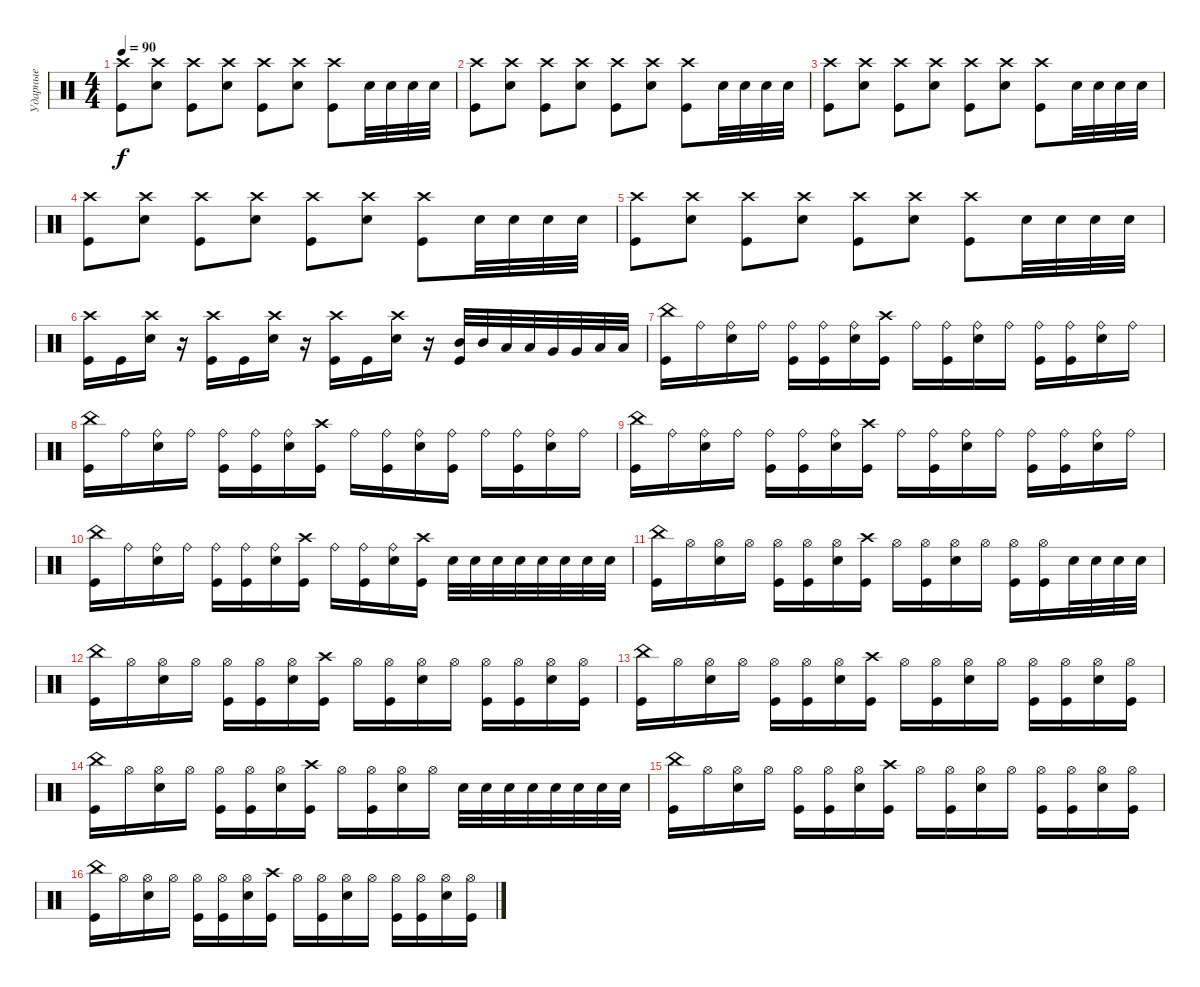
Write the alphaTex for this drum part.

\track ("Ударные" "Ударные") {instrument percussion}
\staff {score}
\articulation defaults
\ts (4 4)
\tempo 90
\clef neutral
\ks c
("Crash high (hit)" "Kick (hit)").8{dy f} ("Electric Snare (hit)" "Crash high (hit)").8 ("Kick (hit)" "Crash high (hit)").8 ("Electric Snare (hit)" "Crash high (hit)").8 ("Kick (hit)" "Crash high (hit)").8 ("Electric Snare (hit)" "Crash high (hit)").8 ("Kick (hit)" "Crash high (hit)").8 "Electric Snare (hit)".32 "Electric Snare (hit)".32 "Electric Snare (hit)".32 "Electric Snare (hit)".32 |
("Crash high (hit)" "Kick (hit)").8 ("Electric Snare (hit)" "Crash high (hit)").8 ("Kick (hit)" "Crash high (hit)").8 ("Electric Snare (hit)" "Crash high (hit)").8 ("Kick (hit)" "Crash high (hit)").8 ("Electric Snare (hit)" "Crash high (hit)").8 ("Kick (hit)" "Crash high (hit)").8 "Electric Snare (hit)".32 "Electric Snare (hit)".32 "Electric Snare (hit)".32 "Electric Snare (hit)".32 |
("Crash high (hit)" "Kick (hit)").8 ("Electric Snare (hit)" "Crash high (hit)").8 ("Kick (hit)" "Crash high (hit)").8 ("Electric Snare (hit)" "Crash high (hit)").8 ("Kick (hit)" "Crash high (hit)").8 ("Electric Snare (hit)" "Crash high (hit)").8 ("Kick (hit)" "Crash high (hit)").8 "Electric Snare (hit)".32 "Electric Snare (hit)".32 "Electric Snare (hit)".32 "Electric Snare (hit)".32 |
("Crash high (hit)" "Kick (hit)").8 ("Electric Snare (hit)" "Crash high (hit)").8 ("Kick (hit)" "Crash high (hit)").8 ("Electric Snare (hit)" "Crash high (hit)").8 ("Kick (hit)" "Crash high (hit)").8 ("Electric Snare (hit)" "Crash high (hit)").8 ("Kick (hit)" "Crash high (hit)").8 "Electric Snare (hit)".32 "Electric Snare (hit)".32 "Electric Snare (hit)".32 "Electric Snare (hit)".32 |
("Crash high (hit)" "Kick (hit)").8 ("Electric Snare (hit)" "Crash high (hit)").8 ("Kick (hit)" "Crash high (hit)").8 ("Electric Snare (hit)" "Crash high (hit)").8 ("Kick (hit)" "Crash high (hit)").8 ("Electric Snare (hit)" "Crash high (hit)").8 ("Kick (hit)" "Crash high (hit)").8 "Electric Snare (hit)".32 "Electric Snare (hit)".32 "Electric Snare (hit)".32 "Electric Snare (hit)".32 |
("Crash high (hit)" "Kick (hit)").16 "Kick (hit)".16 ("Crash high (hit)" "Electric Snare (hit)").16 r.16 ("Crash high (hit)" "Kick (hit)").16 "Kick (hit)".16 ("Crash high (hit)" "Electric Snare (hit)").16 r.16 ("Crash high (hit)" "Kick (hit)").16 "Kick (hit)".16 ("Crash high (hit)" "Electric Snare (hit)").16 r.16 ("Mid Tom (hit)" "Kick (hit)").32 "Mid Tom (hit)".32 "Low Tom (hit)".32 "Low Tom (hit)".32 "Very Low Tom (hit)".32 "Very Low Tom (hit)".32 "Low Floor Tom (hit)".32 "Low Floor Tom (hit)".32 |
("China (hit)" "Kick (hit)").16 "Ride (bell)".16 ("Ride (bell)" "Electric Snare (hit)").16 "Ride (bell)".16 ("Ride (bell)" "Kick (hit)").16 ("Ride (bell)" "Kick (hit)").16 ("Ride (bell)" "Electric Snare (hit)").16 ("Crash high (hit)" "Kick (hit)").16 "Ride (bell)".16 ("Ride (bell)" "Kick (hit)").16 ("Ride (bell)" "Electric Snare (hit)").16 "Ride (bell)".16 ("Ride (bell)" "Kick (hit)").16 ("Ride (bell)" "Kick (hit)").16 ("Ride (bell)" "Electric Snare (hit)").16 "Ride (bell)".16 |
("China (hit)" "Kick (hit)").16 "Ride (bell)".16 ("Ride (bell)" "Electric Snare (hit)").16 "Ride (bell)".16 ("Ride (bell)" "Kick (hit)").16 ("Ride (bell)" "Kick (hit)").16 ("Ride (bell)" "Electric Snare (hit)").16 ("Crash high (hit)" "Kick (hit)").16 "Ride (bell)".16 ("Ride (bell)" "Kick (hit)").16 ("Ride (bell)" "Electric Snare (hit)").16 ("Ride (bell)" "Kick (hit)").16 "Ride (bell)".16 ("Ride (bell)" "Kick (hit)").16 ("Ride (bell)" "Electric Snare (hit)").16 "Ride (bell)".16 |
("China (hit)" "Kick (hit)").16 "Ride (bell)".16 ("Ride (bell)" "Electric Snare (hit)").16 "Ride (bell)".16 ("Ride (bell)" "Kick (hit)").16 ("Ride (bell)" "Kick (hit)").16 ("Ride (bell)" "Electric Snare (hit)").16 ("Crash high (hit)" "Kick (hit)").16 "Ride (bell)".16 ("Ride (bell)" "Kick (hit)").16 ("Ride (bell)" "Electric Snare (hit)").16 "Ride (bell)".16 ("Ride (bell)" "Kick (hit)").16 ("Ride (bell)" "Kick (hit)").16 ("Ride (bell)" "Electric Snare (hit)").16 "Ride (bell)".16 |
("China (hit)" "Kick (hit)").16 "Ride (bell)".16 ("Ride (bell)" "Electric Snare (hit)").16 "Ride (bell)".16 ("Ride (bell)" "Kick (hit)").16 ("Ride (bell)" "Kick (hit)").16 ("Ride (bell)" "Electric Snare (hit)").16 ("Crash high (hit)" "Kick (hit)").16 "Ride (bell)".16 ("Ride (bell)" "Kick (hit)").16 ("Ride (bell)" "Electric Snare (hit)").16 ("Crash high (hit)" "Kick (hit)").16 "Electric Snare (hit)".32 "Electric Snare (hit)".32 "Electric Snare (hit)".32 "Electric Snare (hit)".32 "Electric Snare (hit)".32 "Electric Snare (hit)".32 "Electric Snare (hit)".32 "Electric Snare (hit)".32 |
("China (hit)" "Kick (hit)").16 "Hi-Hat (open)".16 ("Hi-Hat (open)" "Electric Snare (hit)").16 "Hi-Hat (open)".16 ("Hi-Hat (open)" "Kick (hit)").16 ("Hi-Hat (open)" "Kick (hit)").16 ("Hi-Hat (open)" "Electric Snare (hit)").16 ("Crash high (hit)" "Kick (hit)").16 "Hi-Hat (open)".16 ("Hi-Hat (open)" "Kick (hit)").16 ("Hi-Hat (open)" "Electric Snare (hit)").16 "Hi-Hat (open)".16 ("Hi-Hat (open)" "Kick (hit)").16 ("Hi-Hat (open)" "Kick (hit)").16 "Electric Snare (hit)".32 "Electric Snare (hit)".32 "Electric Snare (hit)".32 "Electric Snare (hit)".32 |
("China (hit)" "Kick (hit)").16 "Hi-Hat (open)".16 ("Hi-Hat (open)" "Electric Snare (hit)").16 "Hi-Hat (open)".16 ("Hi-Hat (open)" "Kick (hit)").16 ("Hi-Hat (open)" "Kick (hit)").16 ("Hi-Hat (open)" "Electric Snare (hit)").16 ("Crash high (hit)" "Kick (hit)").16 "Hi-Hat (open)".16 ("Hi-Hat (open)" "Kick (hit)").16 ("Hi-Hat (open)" "Electric Snare (hit)").16 "Hi-Hat (open)".16 ("Hi-Hat (open)" "Kick (hit)").16 ("Hi-Hat (open)" "Kick (hit)").16 ("Hi-Hat (open)" "Electric Snare (hit)").16 ("Hi-Hat (open)" "Kick (hit)").16 |
("China (hit)" "Kick (hit)").16 "Hi-Hat (open)".16 ("Hi-Hat (open)" "Electric Snare (hit)").16 "Hi-Hat (open)".16 ("Hi-Hat (open)" "Kick (hit)").16 ("Hi-Hat (open)" "Kick (hit)").16 ("Hi-Hat (open)" "Electric Snare (hit)").16 ("Crash high (hit)" "Kick (hit)").16 "Hi-Hat (open)".16 ("Hi-Hat (open)" "Kick (hit)").16 ("Hi-Hat (open)" "Electric Snare (hit)").16 "Hi-Hat (open)".16 ("Hi-Hat (open)" "Kick (hit)").16 ("Hi-Hat (open)" "Kick (hit)").16 ("Hi-Hat (open)" "Electric Snare (hit)").16 ("Hi-Hat (open)" "Kick (hit)").16 |
("China (hit)" "Kick (hit)").16 "Hi-Hat (open)".16 ("Hi-Hat (open)" "Electric Snare (hit)").16 "Hi-Hat (open)".16 ("Hi-Hat (open)" "Kick (hit)").16 ("Hi-Hat (open)" "Kick (hit)").16 ("Hi-Hat (open)" "Electric Snare (hit)").16 ("Crash high (hit)" "Kick (hit)").16 "Hi-Hat (open)".16 ("Hi-Hat (open)" "Kick (hit)").16 ("Hi-Hat (open)" "Electric Snare (hit)").16 "Hi-Hat (open)".16 "Electric Snare (hit)".32 "Electric Snare (hit)".32 "Electric Snare (hit)".32 "Electric Snare (hit)".32 "Electric Snare (hit)".32 "Electric Snare (hit)".32 "Electric Snare (hit)".32 "Electric Snare (hit)".32 |
("China (hit)" "Kick (hit)").16 "Hi-Hat (open)".16 ("Hi-Hat (open)" "Electric Snare (hit)").16 "Hi-Hat (open)".16 ("Hi-Hat (open)" "Kick (hit)").16 ("Hi-Hat (open)" "Kick (hit)").16 ("Hi-Hat (open)" "Electric Snare (hit)").16 ("Crash high (hit)" "Kick (hit)").16 "Hi-Hat (open)".16 ("Hi-Hat (open)" "Kick (hit)").16 ("Hi-Hat (open)" "Electric Snare (hit)").16 "Hi-Hat (open)".16 ("Hi-Hat (open)" "Kick (hit)").16 ("Hi-Hat (open)" "Kick (hit)").16 ("Hi-Hat (open)" "Electric Snare (hit)").16 ("Hi-Hat (open)" "Kick (hit)").16 |
("China (hit)" "Kick (hit)").16 "Hi-Hat (open)".16 ("Hi-Hat (open)" "Electric Snare (hit)").16 "Hi-Hat (open)".16 ("Hi-Hat (open)" "Kick (hit)").16 ("Hi-Hat (open)" "Kick (hit)").16 ("Hi-Hat (open)" "Electric Snare (hit)").16 ("Crash high (hit)" "Kick (hit)").16 "Hi-Hat (open)".16 ("Hi-Hat (open)" "Kick (hit)").16 ("Hi-Hat (open)" "Electric Snare (hit)").16 "Hi-Hat (open)".16 ("Hi-Hat (open)" "Kick (hit)").16 ("Hi-Hat (open)" "Kick (hit)").16 ("Hi-Hat (open)" "Electric Snare (hit)").16 ("Hi-Hat (open)" "Kick (hit)").16
